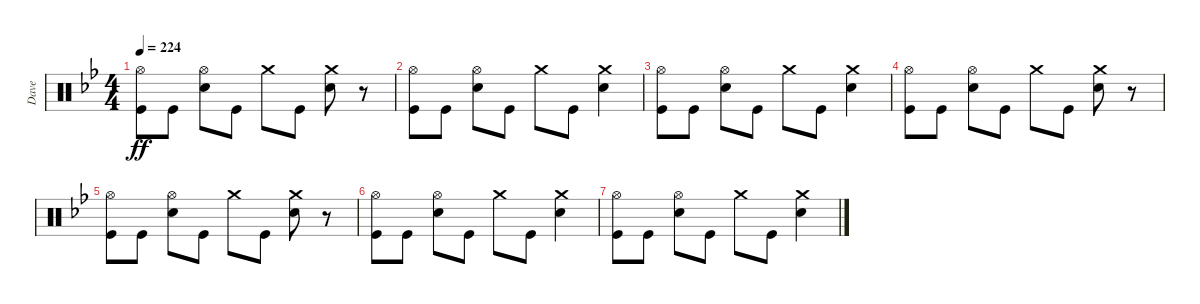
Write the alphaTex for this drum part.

\track ("Dave" "Dave") {instrument percussion}
\staff {score}
\articulation defaults
\ts (4 4)
\tempo 224
\clef neutral
\ks gminor
("Hi-Hat (open)" "Kick (hit)").8{dy ff} "Kick (hit)".8 ("Hi-Hat (open)" "Snare (hit) 2").8 "Kick (hit)".8 "Crash medium (hit)".8 "Kick (hit)".8 ("Crash medium (hit)" "Snare (hit) 2").8 r.8 |
("Hi-Hat (open)" "Kick (hit)").8 "Kick (hit)".8 ("Hi-Hat (open)" "Snare (hit) 2").8 "Kick (hit)".8 "Crash medium (hit)".8 "Kick (hit)".8 ("Crash medium (hit)" "Snare (hit) 2").4 |
("Hi-Hat (open)" "Kick (hit)").8 "Kick (hit)".8 ("Hi-Hat (open)" "Snare (hit) 2").8 "Kick (hit)".8 "Crash medium (hit)".8 "Kick (hit)".8 ("Crash medium (hit)" "Snare (hit) 2").4 |
("Hi-Hat (open)" "Kick (hit)").8 "Kick (hit)".8 ("Hi-Hat (open)" "Snare (hit) 2").8 "Kick (hit)".8 "Crash medium (hit)".8 "Kick (hit)".8 ("Crash medium (hit)" "Snare (hit) 2").8 r.8 |
("Hi-Hat (open)" "Kick (hit)").8 "Kick (hit)".8 ("Hi-Hat (open)" "Snare (hit) 2").8 "Kick (hit)".8 "Crash medium (hit)".8 "Kick (hit)".8 ("Crash medium (hit)" "Snare (hit) 2").8 r.8 |
("Hi-Hat (open)" "Kick (hit)").8 "Kick (hit)".8 ("Hi-Hat (open)" "Snare (hit) 2").8 "Kick (hit)".8 "Crash medium (hit)".8 "Kick (hit)".8 ("Crash medium (hit)" "Snare (hit) 2").4 |
("Hi-Hat (open)" "Kick (hit)").8 "Kick (hit)".8 ("Hi-Hat (open)" "Snare (hit) 2").8 "Kick (hit)".8 "Crash medium (hit)".8 "Kick (hit)".8 ("Crash medium (hit)" "Snare (hit) 2").4
